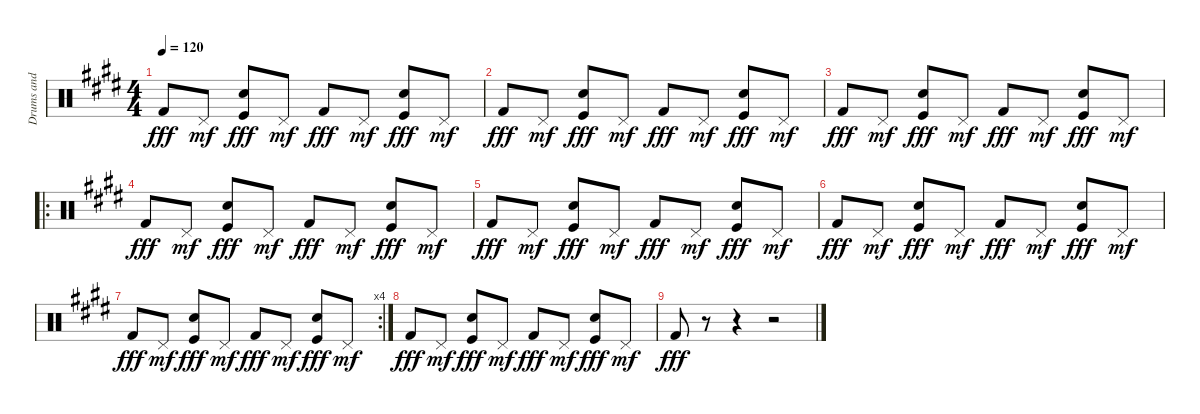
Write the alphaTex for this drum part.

\track ("Drums and clapping" "Drums and ") {instrument percussion}
\staff {score}
\articulation defaults
\ts (4 4)
\tempo 120
\clef neutral
\ks e "Kick (hit) 2".8{dy fff} "Pedal Hi-Hat (hit)".8{dy mf}
("Kick (hit)" "Hand Clap (hit)").8{dy fff} "Pedal Hi-Hat (hit)".8{dy mf} "Kick (hit) 2".8{dy fff} "Pedal Hi-Hat (hit)".8{dy mf} ("Kick (hit)" "Hand Clap (hit)").8{dy fff} "Pedal Hi-Hat (hit)".8{dy mf} |
"Kick (hit) 2".8{dy fff} "Pedal Hi-Hat (hit)".8{dy mf} ("Kick (hit)" "Hand Clap (hit)").8{dy fff} "Pedal Hi-Hat (hit)".8{dy mf} "Kick (hit) 2".8{dy fff} "Pedal Hi-Hat (hit)".8{dy mf} ("Kick (hit)" "Hand Clap (hit)").8{dy fff} "Pedal Hi-Hat (hit)".8{dy mf} |
"Kick (hit) 2".8{dy fff} "Pedal Hi-Hat (hit)".8{dy mf} ("Kick (hit)" "Hand Clap (hit)").8{dy fff} "Pedal Hi-Hat (hit)".8{dy mf} "Kick (hit) 2".8{dy fff} "Pedal Hi-Hat (hit)".8{dy mf} ("Kick (hit)" "Hand Clap (hit)").8{dy fff} "Pedal Hi-Hat (hit)".8{dy mf} |
\ro "Kick (hit) 2".8{dy fff} "Pedal Hi-Hat (hit)".8{dy mf}
("Kick (hit)" "Hand Clap (hit)").8{dy fff} "Pedal Hi-Hat (hit)".8{dy mf} "Kick (hit) 2".8{dy fff} "Pedal Hi-Hat (hit)".8{dy mf} ("Kick (hit)" "Hand Clap (hit)").8{dy fff} "Pedal Hi-Hat (hit)".8{dy mf} |
"Kick (hit) 2".8{dy fff} "Pedal Hi-Hat (hit)".8{dy mf} ("Kick (hit)" "Hand Clap (hit)").8{dy fff} "Pedal Hi-Hat (hit)".8{dy mf} "Kick (hit) 2".8{dy fff} "Pedal Hi-Hat (hit)".8{dy mf} ("Kick (hit)" "Hand Clap (hit)").8{dy fff} "Pedal Hi-Hat (hit)".8{dy mf} |
"Kick (hit) 2".8{dy fff} "Pedal Hi-Hat (hit)".8{dy mf} ("Kick (hit)" "Hand Clap (hit)").8{dy fff} "Pedal Hi-Hat (hit)".8{dy mf} "Kick (hit) 2".8{dy fff} "Pedal Hi-Hat (hit)".8{dy mf} ("Kick (hit)" "Hand Clap (hit)").8{dy fff} "Pedal Hi-Hat (hit)".8{dy mf} |
\rc 4 "Kick (hit) 2".8{dy fff} "Pedal Hi-Hat (hit)".8{dy mf}
("Kick (hit)" "Hand Clap (hit)").8{dy fff} "Pedal Hi-Hat (hit)".8{dy mf} "Kick (hit) 2".8{dy fff} "Pedal Hi-Hat (hit)".8{dy mf} ("Kick (hit)" "Hand Clap (hit)").8{dy fff} "Pedal Hi-Hat (hit)".8{dy mf} |
"Kick (hit) 2".8{dy fff} "Pedal Hi-Hat (hit)".8{dy mf} ("Kick (hit)" "Hand Clap (hit)").8{dy fff} "Pedal Hi-Hat (hit)".8{dy mf} "Kick (hit) 2".8{dy fff} "Pedal Hi-Hat (hit)".8{dy mf} ("Kick (hit)" "Hand Clap (hit)").8{dy fff} "Pedal Hi-Hat (hit)".8{dy mf} |
"Kick (hit) 2".8{dy fff} r.8 r.4 r.2
